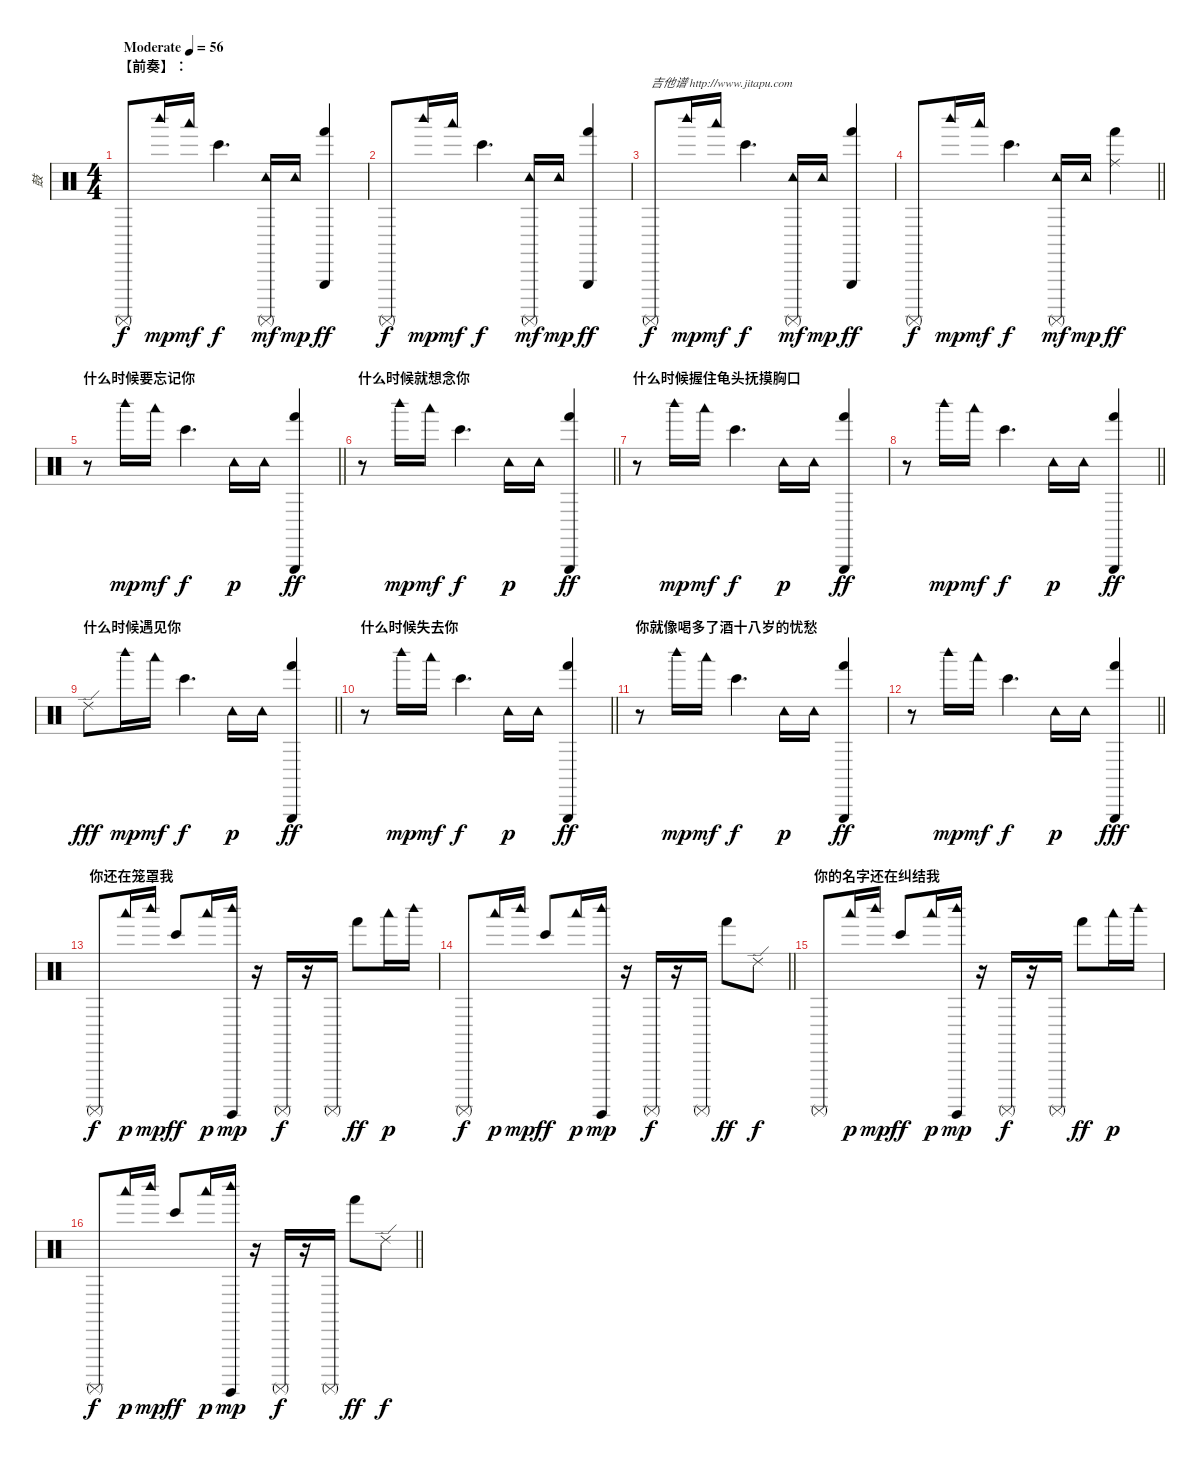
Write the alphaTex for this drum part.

\track ("鼓" "鼓") {instrument percussion}
\staff {score}
\articulation defaults
\ts (4 4)
\section ("" "【前奏】：")
\tempo (56 "Moderate")
\clef neutral
\ks c "Surdo (mute)".8{dy f} "Woodblock high (hit)".16{dy mp} "Woodblock low (hit)".16{dy mf} "Bongo High (hit)".4{d dy f}
("Tambourine (hit)" "Surdo (mute)").16{dy mf} "Tambourine (hit)".16{dy mp} ("Triangle (hit)" "Hand (hit)").4{dy ff} |
"Surdo (mute)".8{dy f} "Woodblock high (hit)".16{dy mp} "Woodblock low (hit)".16{dy mf} "Bongo High (hit)".4{d dy f} ("Tambourine (hit)" "Surdo (mute)").16{dy mf} "Tambourine (hit)".16{dy mp} ("Triangle (hit)" "Hand (hit)").4{dy ff} |
"Surdo (mute)".8{txt "吉他谱 http://www.jitapu.com" dy f} "Woodblock high (hit)".16{dy mp} "Woodblock low (hit)".16{dy mf} "Bongo High (hit)".4{d dy f} ("Tambourine (hit)" "Surdo (mute)").16{dy mf} "Tambourine (hit)".16{dy mp} ("Triangle (hit)" "Hand (hit)").4{dy ff} |
\barLineRight lightlight "Surdo (mute)".8{dy f} "Woodblock high (hit)".16{dy mp} "Woodblock low (hit)".16{dy mf} "Bongo High (hit)".4{d dy f}
("Tambourine (hit)" "Surdo (mute)").16{dy mf} "Tambourine (hit)".16{dy mp} ("Ride (middle)" "Hand (hit)").4{dy ff} |
\section ("" "什么时候要忘记你")
\barLineRight lightlight
r.8{volume 7} "Woodblock high (hit)".16{dy mp} "Woodblock low (hit)".16{dy mf} "Bongo High (hit)".4{d dy f} "Tambourine (hit)".16{dy p} "Tambourine (hit)".16 ("Triangle (hit)" "Hand (hit)").4{dy ff} |
\section ("" "什么时候就想念你")
\barLineRight lightlight
r.8 "Woodblock high (hit)".16{dy mp} "Woodblock low (hit)".16{dy mf} "Bongo High (hit)".4{d dy f} "Tambourine (hit)".16{dy p} "Tambourine (hit)".16 ("Triangle (hit)" "Hand (hit)").4{dy ff} |
\section ("" "什么时候握住龟头抚摸胸口")
r.8 "Woodblock high (hit)".16{dy mp} "Woodblock low (hit)".16{dy mf} "Bongo High (hit)".4{d dy f} "Tambourine (hit)".16{dy p} "Tambourine (hit)".16 ("Triangle (hit)" "Hand (hit)").4{dy ff} |
\barLineRight lightlight
r.8 "Woodblock high (hit)".16{dy mp} "Woodblock low (hit)".16{dy mf} "Bongo High (hit)".4{d dy f} "Tambourine (hit)".16{dy p} "Tambourine (hit)".16 ("Triangle (hit)" "Hand (hit)").4{dy ff} |
\section ("" "什么时候遇见你")
\barLineRight lightlight "Ride (edge) 2".8{dy fff} "Woodblock high (hit)".16{dy mp} "Woodblock low (hit)".16{dy mf} "Bongo High (hit)".4{d dy f} "Tambourine (hit)".16{dy p} "Tambourine (hit)".16
("Triangle (hit)" "Hand (hit)").4{dy ff} |
\section ("" "什么时候失去你")
\barLineRight lightlight
r.8 "Woodblock high (hit)".16{dy mp} "Woodblock low (hit)".16{dy mf} "Bongo High (hit)".4{d dy f} "Tambourine (hit)".16{dy p} "Tambourine (hit)".16 ("Triangle (hit)" "Hand (hit)").4{dy ff} |
\section ("" "你就像喝多了酒十八岁的忧愁")
r.8 "Woodblock high (hit)".16{dy mp} "Woodblock low (hit)".16{dy mf} "Bongo High (hit)".4{d dy f} "Tambourine (hit)".16{dy p} "Tambourine (hit)".16 ("Triangle (hit)" "Hand (hit)").4{dy ff} |
\barLineRight lightlight
r.8 "Woodblock high (hit)".16{dy mp} "Woodblock low (hit)".16{dy mf} "Bongo High (hit)".4{d dy f} "Tambourine (hit)".16{dy p} "Tambourine (hit)".16 ("Triangle (hit)" "Hand (hit)").4{dy fff} |
\section ("" "你还在笼罩我")
"Surdo (mute)".8{dy f volume 13} "Woodblock low (hit)".16{dy p} "Woodblock high (hit)".16{dy mp} "Bongo High (hit)".8{dy ff} "Woodblock low (hit)".16{dy p} ("Woodblock high (hit)" "Surdo (hit)").16{dy mp} r.16 "Surdo (mute)".16{dy f} r.16 "Surdo (mute)".16 "Hand (hit)".8{dy ff} "Woodblock low (hit)".16{dy p} "Woodblock high (hit)".16 |
\barLineRight lightlight "Surdo (mute)".8{dy f} "Woodblock low (hit)".16{dy p} "Woodblock high (hit)".16{dy mp} "Bongo High (hit)".8{dy ff} "Woodblock low (hit)".16{dy p}
("Woodblock high (hit)" "Surdo (hit)").16{dy mp} r.16 "Surdo (mute)".16{dy f} r.16 "Surdo (mute)".16 "Hand (hit)".8{dy ff} "Ride (edge) 2".8{dy f} |
\section ("" "你的名字还在纠结我")
"Surdo (mute)".8 "Woodblock low (hit)".16{dy p} "Woodblock high (hit)".16{dy mp} "Bongo High (hit)".8{dy ff} "Woodblock low (hit)".16{dy p} ("Woodblock high (hit)" "Surdo (hit)").16{dy mp} r.16 "Surdo (mute)".16{dy f} r.16 "Surdo (mute)".16 "Hand (hit)".8{dy ff} "Woodblock low (hit)".16{dy p} "Woodblock high (hit)".16 |
\barLineRight lightlight "Surdo (mute)".8{dy f} "Woodblock low (hit)".16{dy p} "Woodblock high (hit)".16{dy mp} "Bongo High (hit)".8{dy ff} "Woodblock low (hit)".16{dy p}
("Woodblock high (hit)" "Surdo (hit)").16{dy mp} r.16 "Surdo (mute)".16{dy f} r.16 "Surdo (mute)".16 "Hand (hit)".8{dy ff} "Ride (edge) 2".8{dy f}
